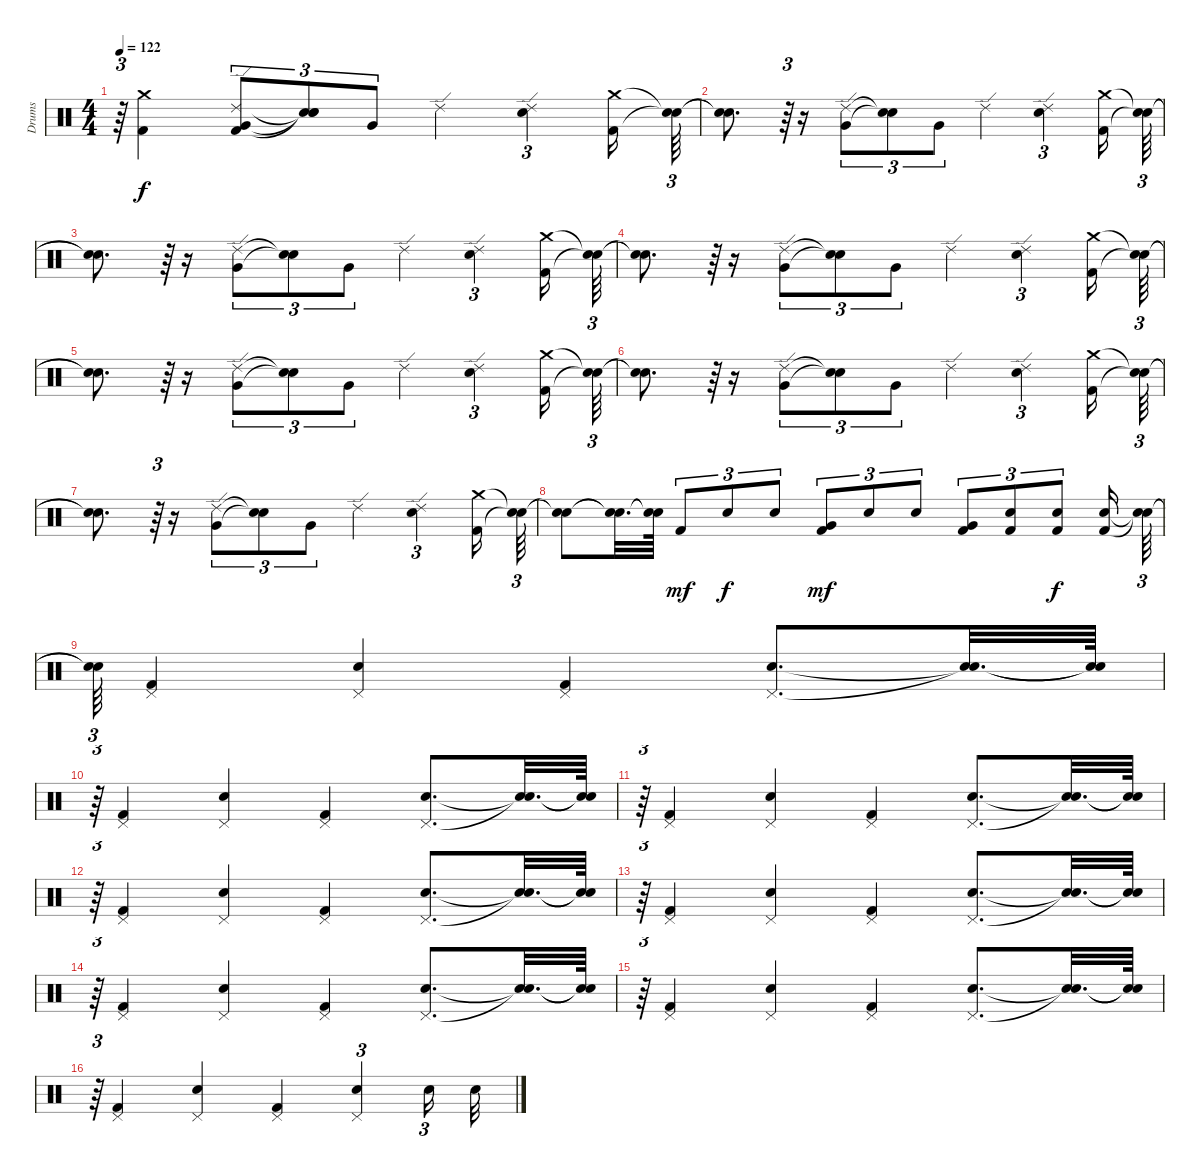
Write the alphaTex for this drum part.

\track ("Drums" "Drums") {instrument percussion}
\staff {score}
\articulation defaults
\ts (4 4)
\tempo 122
\clef neutral
\ks c
r.64{tu (3 2) dy f} ("Crash medium (hit)" "Kick (hit) 2").4 ("Kick (hit) 2" "Ride (edge) 2" "Very Low Tom (hit)").8{tu (3 2)} ("Snare (hit)"{t} "Snare (hit)"{t} "Snare (hit)"{t}).8{tu (3 2)} "Very Low Tom (hit)".8{tu (3 2)} "Ride (edge) 2".4 ("Snare (hit) 2" "Ride (edge) 2").4{tu (3 2)} ("Crash medium (hit)" "Kick (hit) 2").16 ("Snare (hit)"{t} "Snare (hit)"{t}).64{tu (3 2)} |
("Snare (hit)"{t} "Snare (hit)"{t}).8{d} r.64{tu (3 2)} r.16 ("Very Low Tom (hit)" "Ride (edge) 2").8{tu (3 2)} ("Snare (hit)"{t} "Snare (hit)"{t}).8{tu (3 2)} "Very Low Tom (hit)".8{tu (3 2)} "Ride (edge) 2".4 ("Snare (hit) 2" "Ride (edge) 2").4{tu (3 2)} ("Crash medium (hit)" "Kick (hit) 2").16 ("Snare (hit)"{t} "Snare (hit)"{t}).64{tu (3 2)} |
("Snare (hit)"{t} "Snare (hit)"{t}).8{d} r.64{tu (3 2)} r.16 ("Very Low Tom (hit)" "Ride (edge) 2").8{tu (3 2)} ("Snare (hit)"{t} "Snare (hit)"{t}).8{tu (3 2)} "Very Low Tom (hit)".8{tu (3 2)} "Ride (edge) 2".4 ("Snare (hit) 2" "Ride (edge) 2").4{tu (3 2)} ("Crash medium (hit)" "Kick (hit) 2").16 ("Snare (hit)"{t} "Snare (hit)"{t}).64{tu (3 2)} |
("Snare (hit)"{t} "Snare (hit)"{t}).8{d} r.64{tu (3 2)} r.16 ("Very Low Tom (hit)" "Ride (edge) 2").8{tu (3 2)} ("Snare (hit)"{t} "Snare (hit)"{t}).8{tu (3 2)} "Very Low Tom (hit)".8{tu (3 2)} "Ride (edge) 2".4 ("Snare (hit) 2" "Ride (edge) 2").4{tu (3 2)} ("Crash medium (hit)" "Kick (hit) 2").16 ("Snare (hit)"{t} "Snare (hit)"{t}).64{tu (3 2)} |
("Snare (hit)"{t} "Snare (hit)"{t}).8{d} r.64{tu (3 2)} r.16 ("Very Low Tom (hit)" "Ride (edge) 2").8{tu (3 2)} ("Snare (hit)"{t} "Snare (hit)"{t}).8{tu (3 2)} "Very Low Tom (hit)".8{tu (3 2)} "Ride (edge) 2".4 ("Snare (hit) 2" "Ride (edge) 2").4{tu (3 2)} ("Crash medium (hit)" "Kick (hit) 2").16 ("Snare (hit)"{t} "Snare (hit)"{t}).64{tu (3 2)} |
("Snare (hit)"{t} "Snare (hit)"{t}).8{d} r.64{tu (3 2)} r.16 ("Very Low Tom (hit)" "Ride (edge) 2").8{tu (3 2)} ("Snare (hit)"{t} "Snare (hit)"{t}).8{tu (3 2)} "Very Low Tom (hit)".8{tu (3 2)} "Ride (edge) 2".4 ("Snare (hit) 2" "Ride (edge) 2").4{tu (3 2)} ("Crash medium (hit)" "Kick (hit) 2").16 ("Snare (hit)"{t} "Snare (hit)"{t}).64{tu (3 2)} |
("Snare (hit)"{t} "Snare (hit)"{t}).8{d} r.64{tu (3 2)} r.16 ("Very Low Tom (hit)" "Ride (edge) 2").8{tu (3 2)} ("Snare (hit)"{t} "Snare (hit)"{t}).8{tu (3 2)} "Very Low Tom (hit)".8{tu (3 2)} "Ride (edge) 2".4 ("Snare (hit) 2" "Ride (edge) 2").4{tu (3 2)} ("Crash medium (hit)" "Kick (hit) 2").16 ("Snare (hit)"{t} "Snare (hit)"{t}).64{tu (3 2)} |
("Snare (hit)"{t} "Snare (hit)"{t}).8 ("Snare (hit)"{t} "Snare (hit)"{t}).32{d} ("Snare (hit)"{t} "Snare (hit)"{t}).64 "Kick (hit) 2".8{tu (3 2) dy mf} "Snare (hit) 2".8{tu (3 2) dy f} "Snare (hit) 2".8{tu (3 2)} ("Very Low Tom (hit)" "Kick (hit) 2").8{tu (3 2) dy mf} "Snare (hit) 2".8{tu (3 2)} "Snare (hit) 2".8{tu (3 2)} ("Very Low Tom (hit)" "Kick (hit) 2").8{tu (3 2)} ("Kick (hit) 2" "Snare (hit) 2").8{tu (3 2)} ("Kick (hit) 2" "Snare (hit) 2").8{tu (3 2) dy f} ("Kick (hit) 2" "Snare (hit) 2").16 ("Snare (hit)"{t} "Snare (hit)"{t}).64{tu (3 2)} |
("Snare (hit)"{t} "Snare (hit)"{t}).64{tu (3 2)} ("Pedal Hi-Hat (hit)" "Kick (hit) 2").4 ("Pedal Hi-Hat (hit)" "Snare (hit) 2").4 ("Pedal Hi-Hat (hit)" "Kick (hit) 2").4 ("Pedal Hi-Hat (hit)" "Snare (hit) 2").8{d} ("Snare (hit)"{t} "Snare (hit)"{t}).32{d} ("Snare (hit)"{t} "Snare (hit)"{t}).64 |
r.64{tu (3 2)} ("Pedal Hi-Hat (hit)" "Kick (hit) 2").4 ("Pedal Hi-Hat (hit)" "Snare (hit) 2").4 ("Pedal Hi-Hat (hit)" "Kick (hit) 2").4 ("Pedal Hi-Hat (hit)" "Snare (hit) 2").8{d} ("Snare (hit)"{t} "Snare (hit)"{t}).32{d} ("Snare (hit)"{t} "Snare (hit)"{t}).64 |
r.64{tu (3 2)} ("Pedal Hi-Hat (hit)" "Kick (hit) 2").4 ("Pedal Hi-Hat (hit)" "Snare (hit) 2").4 ("Pedal Hi-Hat (hit)" "Kick (hit) 2").4 ("Pedal Hi-Hat (hit)" "Snare (hit) 2").8{d} ("Snare (hit)"{t} "Snare (hit)"{t}).32{d} ("Snare (hit)"{t} "Snare (hit)"{t}).64 |
r.64{tu (3 2)} ("Pedal Hi-Hat (hit)" "Kick (hit) 2").4 ("Pedal Hi-Hat (hit)" "Snare (hit) 2").4 ("Pedal Hi-Hat (hit)" "Kick (hit) 2").4 ("Pedal Hi-Hat (hit)" "Snare (hit) 2").8{d} ("Snare (hit)"{t} "Snare (hit)"{t}).32{d} ("Snare (hit)"{t} "Snare (hit)"{t}).64 |
r.64{tu (3 2)} ("Pedal Hi-Hat (hit)" "Kick (hit) 2").4 ("Pedal Hi-Hat (hit)" "Snare (hit) 2").4 ("Pedal Hi-Hat (hit)" "Kick (hit) 2").4 ("Pedal Hi-Hat (hit)" "Snare (hit) 2").8{d} ("Snare (hit)"{t} "Snare (hit)"{t}).32{d} ("Snare (hit)"{t} "Snare (hit)"{t}).64 |
r.64{tu (3 2)} ("Pedal Hi-Hat (hit)" "Kick (hit) 2").4 ("Pedal Hi-Hat (hit)" "Snare (hit) 2").4 ("Pedal Hi-Hat (hit)" "Kick (hit) 2").4 ("Pedal Hi-Hat (hit)" "Snare (hit) 2").8{d} ("Snare (hit)"{t} "Snare (hit)"{t}).32{d} ("Snare (hit)"{t} "Snare (hit)"{t}).64 |
r.64{tu (3 2)} ("Pedal Hi-Hat (hit)" "Kick (hit) 2").4 ("Pedal Hi-Hat (hit)" "Snare (hit) 2").4 ("Pedal Hi-Hat (hit)" "Kick (hit) 2").4 ("Pedal Hi-Hat (hit)" "Snare (hit) 2").8{d} ("Snare (hit)"{t} "Snare (hit)"{t}).32{d} ("Snare (hit)"{t} "Snare (hit)"{t}).64 |
r.64{tu (3 2)} ("Pedal Hi-Hat (hit)" "Kick (hit) 2").4 ("Pedal Hi-Hat (hit)" "Snare (hit) 2").4 ("Pedal Hi-Hat (hit)" "Kick (hit) 2").4 ("Pedal Hi-Hat (hit)" "Snare (hit) 2").4{tu (3 2)} "Snare (hit) 2".16{tu (3 2)} "Snare (hit) 2".32
